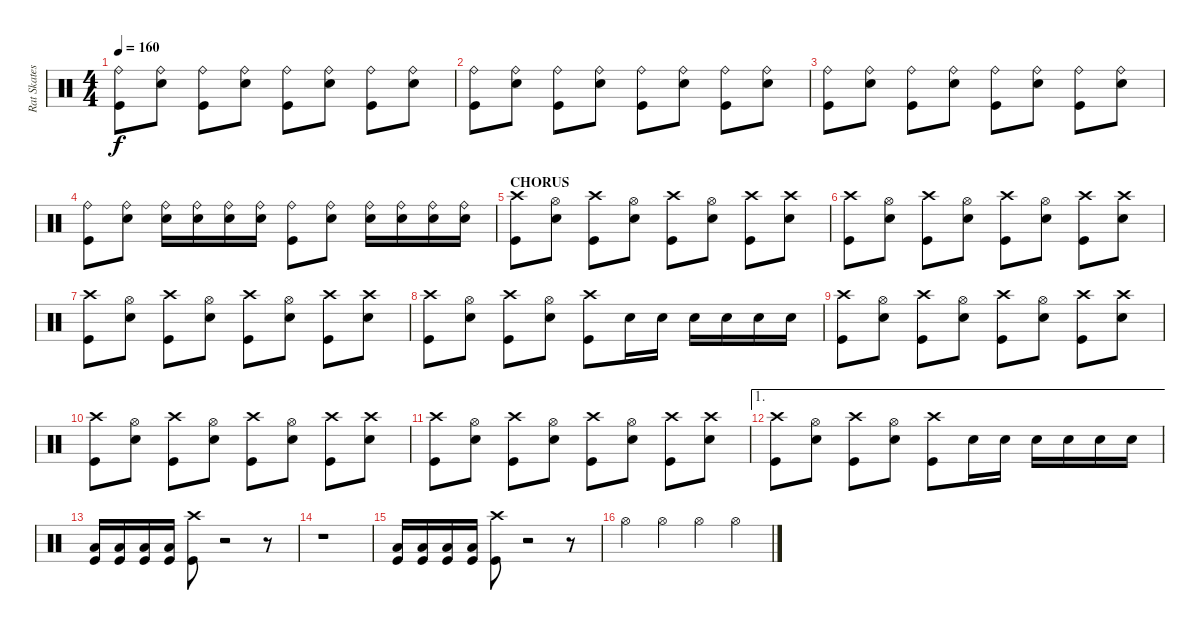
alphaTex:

\track ("Rat Skates" "Rat Skates") {instrument percussion}
\staff {score}
\articulation defaults
\ts (4 4)
\tempo 160
\clef neutral
\ks c
("Ride (bell)" "Kick (hit)").8{dy f} ("Ride (bell)" "Snare (hit) 2").8 ("Ride (bell)" "Kick (hit)").8 ("Ride (bell)" "Snare (hit) 2").8 ("Ride (bell)" "Kick (hit)").8 ("Ride (bell)" "Snare (hit) 2").8 ("Ride (bell)" "Kick (hit)").8 ("Ride (bell)" "Snare (hit) 2").8 |
("Ride (bell)" "Kick (hit)").8 ("Ride (bell)" "Snare (hit) 2").8 ("Ride (bell)" "Kick (hit)").8 ("Ride (bell)" "Snare (hit) 2").8 ("Ride (bell)" "Kick (hit)").8 ("Ride (bell)" "Snare (hit) 2").8 ("Ride (bell)" "Kick (hit)").8 ("Ride (bell)" "Snare (hit) 2").8 |
("Ride (bell)" "Kick (hit)").8 ("Ride (bell)" "Snare (hit) 2").8 ("Ride (bell)" "Kick (hit)").8 ("Ride (bell)" "Snare (hit) 2").8 ("Ride (bell)" "Kick (hit)").8 ("Ride (bell)" "Snare (hit) 2").8 ("Ride (bell)" "Kick (hit)").8 ("Ride (bell)" "Snare (hit) 2").8 |
("Ride (bell)" "Kick (hit)").8 ("Ride (bell)" "Snare (hit) 2").8 ("Ride (bell)" "Snare (hit) 2").16 ("Ride (bell)" "Snare (hit) 2").16 ("Ride (bell)" "Snare (hit) 2").16 ("Ride (bell)" "Snare (hit) 2").16 ("Ride (bell)" "Kick (hit)").8 ("Ride (bell)" "Snare (hit) 2").8 ("Ride (bell)" "Snare (hit) 2").16 ("Ride (bell)" "Snare (hit) 2").16 ("Ride (bell)" "Snare (hit) 2").16 ("Ride (bell)" "Snare (hit) 2").16 |
\section ("" "CHORUS")
("Crash high (hit)" "Kick (hit)").8 ("Hi-Hat (open)" "Snare (hit) 2").8 ("Crash high (hit)" "Kick (hit)").8 ("Hi-Hat (open)" "Snare (hit) 2").8 ("Crash high (hit)" "Kick (hit)").8 ("Hi-Hat (open)" "Snare (hit) 2").8 ("Crash high (hit)" "Kick (hit)").8 ("Crash high (hit)" "Snare (hit) 2").8 |
("Crash high (hit)" "Kick (hit)").8 ("Hi-Hat (open)" "Snare (hit) 2").8 ("Crash high (hit)" "Kick (hit)").8 ("Hi-Hat (open)" "Snare (hit) 2").8 ("Crash high (hit)" "Kick (hit)").8 ("Hi-Hat (open)" "Snare (hit) 2").8 ("Crash high (hit)" "Kick (hit)").8 ("Crash high (hit)" "Snare (hit) 2").8 |
("Crash high (hit)" "Kick (hit)").8 ("Hi-Hat (open)" "Snare (hit) 2").8 ("Crash high (hit)" "Kick (hit)").8 ("Hi-Hat (open)" "Snare (hit) 2").8 ("Crash high (hit)" "Kick (hit)").8 ("Hi-Hat (open)" "Snare (hit) 2").8 ("Crash high (hit)" "Kick (hit)").8 ("Crash high (hit)" "Snare (hit) 2").8 |
("Crash high (hit)" "Kick (hit)").8 ("Hi-Hat (open)" "Snare (hit) 2").8 ("Crash high (hit)" "Kick (hit)").8 ("Hi-Hat (open)" "Snare (hit) 2").8 ("Crash high (hit)" "Kick (hit)").8 "Snare (hit) 2".16 "Snare (hit) 2".16 "Snare (hit) 2".16 "Snare (hit) 2".16 "Snare (hit) 2".16 "Snare (hit) 2".16 |
("Crash high (hit)" "Kick (hit)").8 ("Hi-Hat (open)" "Snare (hit) 2").8 ("Crash high (hit)" "Kick (hit)").8 ("Hi-Hat (open)" "Snare (hit) 2").8 ("Crash high (hit)" "Kick (hit)").8 ("Hi-Hat (open)" "Snare (hit) 2").8 ("Crash high (hit)" "Kick (hit)").8 ("Crash high (hit)" "Snare (hit) 2").8 |
("Crash high (hit)" "Kick (hit)").8 ("Hi-Hat (open)" "Snare (hit) 2").8 ("Crash high (hit)" "Kick (hit)").8 ("Hi-Hat (open)" "Snare (hit) 2").8 ("Crash high (hit)" "Kick (hit)").8 ("Hi-Hat (open)" "Snare (hit) 2").8 ("Crash high (hit)" "Kick (hit)").8 ("Crash high (hit)" "Snare (hit) 2").8 |
("Crash high (hit)" "Kick (hit)").8 ("Hi-Hat (open)" "Snare (hit) 2").8 ("Crash high (hit)" "Kick (hit)").8 ("Hi-Hat (open)" "Snare (hit) 2").8 ("Crash high (hit)" "Kick (hit)").8 ("Hi-Hat (open)" "Snare (hit) 2").8 ("Crash high (hit)" "Kick (hit)").8 ("Crash high (hit)" "Snare (hit) 2").8 |
\ae 1
("Crash high (hit)" "Kick (hit)").8 ("Hi-Hat (open)" "Snare (hit) 2").8 ("Crash high (hit)" "Kick (hit)").8 ("Hi-Hat (open)" "Snare (hit) 2").8 ("Crash high (hit)" "Kick (hit)").8 "Snare (hit) 2".16 "Snare (hit) 2".16 "Snare (hit) 2".16 "Snare (hit) 2".16 "Snare (hit) 2".16 "Snare (hit) 2".16 |
("Kick (hit)" "Low Tom (hit)").16 ("Kick (hit)" "Low Tom (hit)").16 ("Kick (hit)" "Low Tom (hit)").16 ("Kick (hit)" "Low Tom (hit)").16 ("Kick (hit)" "Crash high (hit)").8 r.2 r.8 |
r.1 |
("Kick (hit)" "Low Tom (hit)").16 ("Kick (hit)" "Low Tom (hit)").16 ("Kick (hit)" "Low Tom (hit)").16 ("Kick (hit)" "Low Tom (hit)").16 ("Kick (hit)" "Crash high (hit)").8 r.2 r.8 |
"Hi-Hat (open)".4 "Hi-Hat (open)".4 "Hi-Hat (open)".4 "Hi-Hat (open)".4
